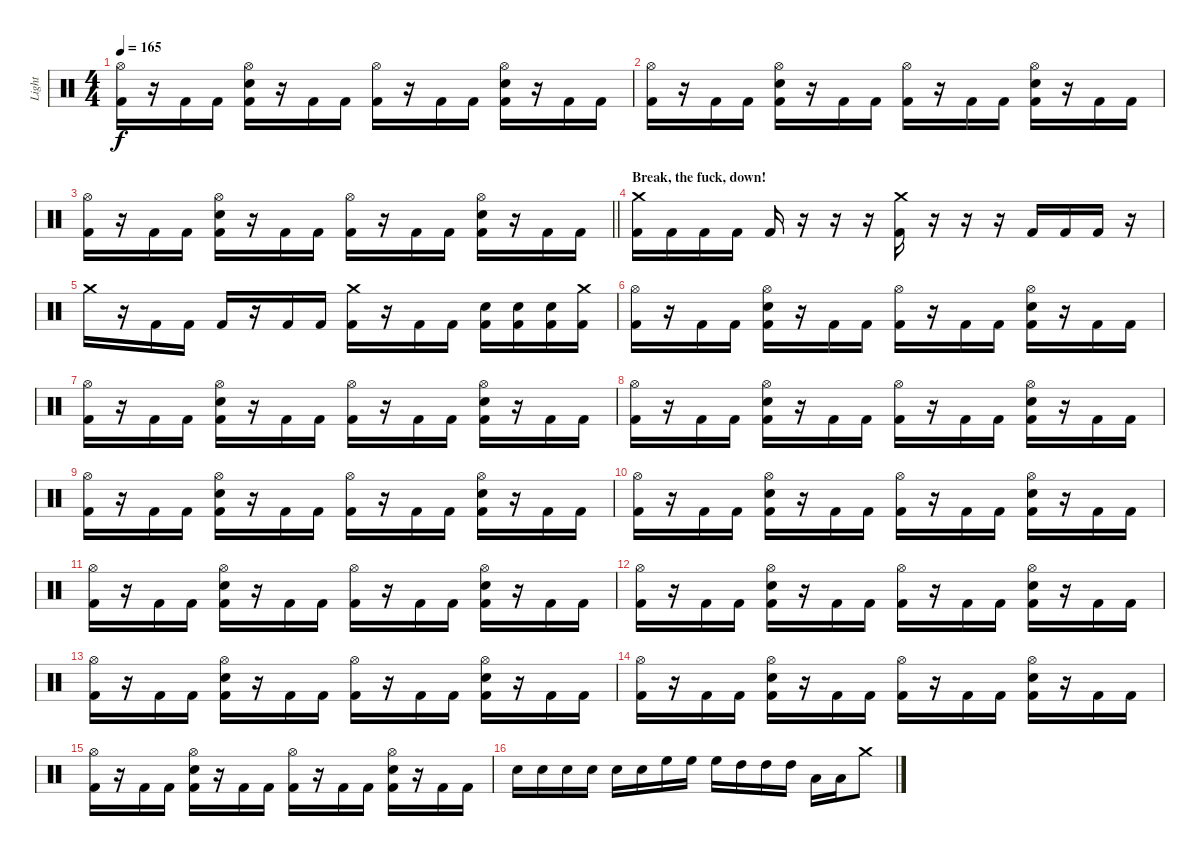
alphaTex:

\track ("Light" "Light") {instrument percussion}
\staff {score}
\articulation defaults
\ts (4 4)
\tempo 165
\clef neutral
\ks c
("Hi-Hat (open)" "Kick (hit) 2").16{dy f} r.16 "Kick (hit) 2".16 "Kick (hit) 2".16 ("Hi-Hat (open)" "Electric Snare (hit)" "Kick (hit) 2").16 r.16 "Kick (hit) 2".16 "Kick (hit) 2".16 ("Hi-Hat (open)" "Kick (hit) 2").16 r.16 "Kick (hit) 2".16 "Kick (hit) 2".16 ("Hi-Hat (open)" "Electric Snare (hit)" "Kick (hit) 2").16 r.16 "Kick (hit) 2".16 "Kick (hit) 2".16 |
("Hi-Hat (open)" "Kick (hit) 2").16 r.16 "Kick (hit) 2".16 "Kick (hit) 2".16 ("Hi-Hat (open)" "Electric Snare (hit)" "Kick (hit) 2").16 r.16 "Kick (hit) 2".16 "Kick (hit) 2".16 ("Hi-Hat (open)" "Kick (hit) 2").16 r.16 "Kick (hit) 2".16 "Kick (hit) 2".16 ("Hi-Hat (open)" "Electric Snare (hit)" "Kick (hit) 2").16 r.16 "Kick (hit) 2".16 "Kick (hit) 2".16 |
\barLineRight lightlight
("Hi-Hat (open)" "Kick (hit) 2").16 r.16 "Kick (hit) 2".16 "Kick (hit) 2".16 ("Hi-Hat (open)" "Electric Snare (hit)" "Kick (hit) 2").16 r.16 "Kick (hit) 2".16 "Kick (hit) 2".16 ("Hi-Hat (open)" "Kick (hit) 2").16 r.16 "Kick (hit) 2".16 "Kick (hit) 2".16 ("Hi-Hat (open)" "Electric Snare (hit)" "Kick (hit) 2").16 r.16 "Kick (hit) 2".16 "Kick (hit) 2".16 |
\section ("" "Break, the fuck, down!")
("Crash medium (hit)" "Kick (hit) 2").16 "Kick (hit) 2".16 "Kick (hit) 2".16 "Kick (hit) 2".16 "Kick (hit) 2".16 r.16 r.16 r.16 ("Crash medium (hit)" "Kick (hit) 2").16 r.16 r.16 r.16 "Kick (hit) 2".16 "Kick (hit) 2".16 "Kick (hit) 2".16 r.16 |
"Crash medium (hit)".16 r.16 "Kick (hit) 2".16 "Kick (hit) 2".16 "Kick (hit) 2".16 r.16 "Kick (hit) 2".16 "Kick (hit) 2".16 ("Crash medium (hit)" "Kick (hit) 2").16 r.16 "Kick (hit) 2".16 "Kick (hit) 2".16 ("Electric Snare (hit)" "Kick (hit) 2").16 ("Electric Snare (hit)" "Kick (hit) 2").16 ("Electric Snare (hit)" "Kick (hit) 2").16 ("Crash medium (hit)" "Kick (hit) 2").16 |
("Hi-Hat (open)" "Kick (hit) 2").16 r.16 "Kick (hit) 2".16 "Kick (hit) 2".16 ("Hi-Hat (open)" "Electric Snare (hit)" "Kick (hit) 2").16 r.16 "Kick (hit) 2".16 "Kick (hit) 2".16 ("Hi-Hat (open)" "Kick (hit) 2").16 r.16 "Kick (hit) 2".16 "Kick (hit) 2".16 ("Hi-Hat (open)" "Electric Snare (hit)" "Kick (hit) 2").16 r.16 "Kick (hit) 2".16 "Kick (hit) 2".16 |
("Hi-Hat (open)" "Kick (hit) 2").16 r.16 "Kick (hit) 2".16 "Kick (hit) 2".16 ("Hi-Hat (open)" "Electric Snare (hit)" "Kick (hit) 2").16 r.16 "Kick (hit) 2".16 "Kick (hit) 2".16 ("Hi-Hat (open)" "Kick (hit) 2").16 r.16 "Kick (hit) 2".16 "Kick (hit) 2".16 ("Hi-Hat (open)" "Electric Snare (hit)" "Kick (hit) 2").16 r.16 "Kick (hit) 2".16 "Kick (hit) 2".16 |
("Hi-Hat (open)" "Kick (hit) 2").16 r.16 "Kick (hit) 2".16 "Kick (hit) 2".16 ("Hi-Hat (open)" "Electric Snare (hit)" "Kick (hit) 2").16 r.16 "Kick (hit) 2".16 "Kick (hit) 2".16 ("Hi-Hat (open)" "Kick (hit) 2").16 r.16 "Kick (hit) 2".16 "Kick (hit) 2".16 ("Hi-Hat (open)" "Electric Snare (hit)" "Kick (hit) 2").16 r.16 "Kick (hit) 2".16 "Kick (hit) 2".16 |
("Hi-Hat (open)" "Kick (hit) 2").16 r.16 "Kick (hit) 2".16 "Kick (hit) 2".16 ("Hi-Hat (open)" "Electric Snare (hit)" "Kick (hit) 2").16 r.16 "Kick (hit) 2".16 "Kick (hit) 2".16 ("Hi-Hat (open)" "Kick (hit) 2").16 r.16 "Kick (hit) 2".16 "Kick (hit) 2".16 ("Hi-Hat (open)" "Electric Snare (hit)" "Kick (hit) 2").16 r.16 "Kick (hit) 2".16 "Kick (hit) 2".16 |
("Hi-Hat (open)" "Kick (hit) 2").16 r.16 "Kick (hit) 2".16 "Kick (hit) 2".16 ("Hi-Hat (open)" "Electric Snare (hit)" "Kick (hit) 2").16 r.16 "Kick (hit) 2".16 "Kick (hit) 2".16 ("Hi-Hat (open)" "Kick (hit) 2").16 r.16 "Kick (hit) 2".16 "Kick (hit) 2".16 ("Hi-Hat (open)" "Electric Snare (hit)" "Kick (hit) 2").16 r.16 "Kick (hit) 2".16 "Kick (hit) 2".16 |
("Hi-Hat (open)" "Kick (hit) 2").16 r.16 "Kick (hit) 2".16 "Kick (hit) 2".16 ("Hi-Hat (open)" "Electric Snare (hit)" "Kick (hit) 2").16 r.16 "Kick (hit) 2".16 "Kick (hit) 2".16 ("Hi-Hat (open)" "Kick (hit) 2").16 r.16 "Kick (hit) 2".16 "Kick (hit) 2".16 ("Hi-Hat (open)" "Electric Snare (hit)" "Kick (hit) 2").16 r.16 "Kick (hit) 2".16 "Kick (hit) 2".16 |
("Hi-Hat (open)" "Kick (hit) 2").16 r.16 "Kick (hit) 2".16 "Kick (hit) 2".16 ("Hi-Hat (open)" "Electric Snare (hit)" "Kick (hit) 2").16 r.16 "Kick (hit) 2".16 "Kick (hit) 2".16 ("Hi-Hat (open)" "Kick (hit) 2").16 r.16 "Kick (hit) 2".16 "Kick (hit) 2".16 ("Hi-Hat (open)" "Electric Snare (hit)" "Kick (hit) 2").16 r.16 "Kick (hit) 2".16 "Kick (hit) 2".16 |
("Hi-Hat (open)" "Kick (hit) 2").16 r.16 "Kick (hit) 2".16 "Kick (hit) 2".16 ("Hi-Hat (open)" "Electric Snare (hit)" "Kick (hit) 2").16 r.16 "Kick (hit) 2".16 "Kick (hit) 2".16 ("Hi-Hat (open)" "Kick (hit) 2").16 r.16 "Kick (hit) 2".16 "Kick (hit) 2".16 ("Hi-Hat (open)" "Electric Snare (hit)" "Kick (hit) 2").16 r.16 "Kick (hit) 2".16 "Kick (hit) 2".16 |
("Hi-Hat (open)" "Kick (hit) 2").16 r.16 "Kick (hit) 2".16 "Kick (hit) 2".16 ("Hi-Hat (open)" "Electric Snare (hit)" "Kick (hit) 2").16 r.16 "Kick (hit) 2".16 "Kick (hit) 2".16 ("Hi-Hat (open)" "Kick (hit) 2").16 r.16 "Kick (hit) 2".16 "Kick (hit) 2".16 ("Hi-Hat (open)" "Electric Snare (hit)" "Kick (hit) 2").16 r.16 "Kick (hit) 2".16 "Kick (hit) 2".16 |
("Hi-Hat (open)" "Kick (hit) 2").16 r.16 "Kick (hit) 2".16 "Kick (hit) 2".16 ("Hi-Hat (open)" "Electric Snare (hit)" "Kick (hit) 2").16 r.16 "Kick (hit) 2".16 "Kick (hit) 2".16 ("Hi-Hat (open)" "Kick (hit) 2").16 r.16 "Kick (hit) 2".16 "Kick (hit) 2".16 ("Hi-Hat (open)" "Electric Snare (hit)" "Kick (hit) 2").16 r.16 "Kick (hit) 2".16 "Kick (hit) 2".16 |
"Electric Snare (hit)".16 "Electric Snare (hit)".16 "Electric Snare (hit)".16 "Electric Snare (hit)".16 "Electric Snare (hit)".16 "Electric Snare (hit)".16 "High Floor Tom (hit)".16 "High Floor Tom (hit)".16 "High Floor Tom (hit)".16 "High Tom (hit)".16 "High Tom (hit)".16 "High Tom (hit)".16 "Low Tom (hit)".16 "Low Tom (hit)".16 "Crash medium (hit)".8
